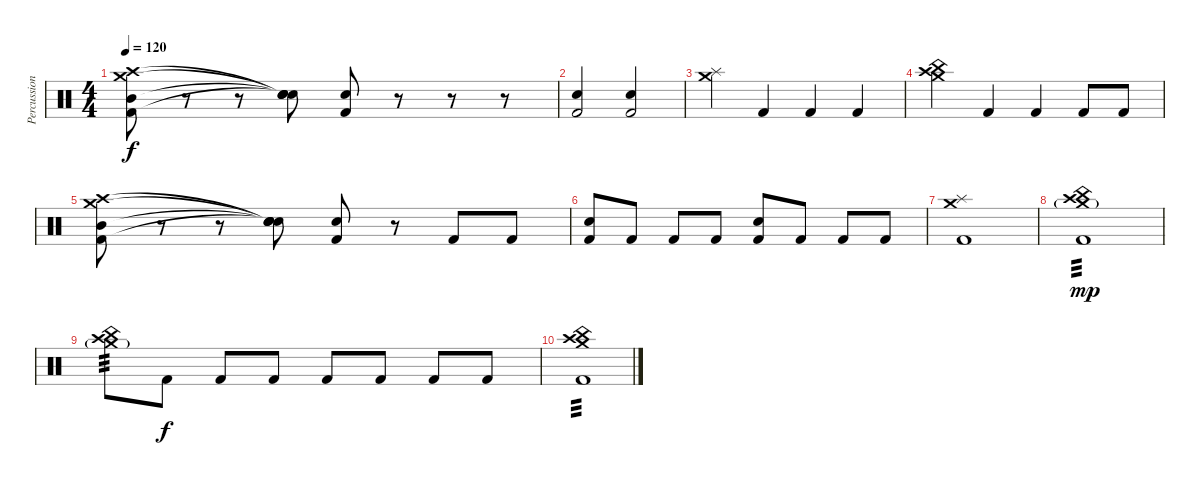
\track ("Percussion" "Percussion") {instrument percussion}
\staff {score}
\articulation defaults
\ts (4 4)
\tempo 120
\clef neutral
\ks c
("Mid Tom (hit)" "Crash medium (hit)" "Kick (hit) 2" "Crash high (hit)").8{dy f} r.8 r.8 ("Snare (hit)"{t} "Snare (hit)"{t} "Snare (hit)"{t} "Snare (hit)"{t}).8 ("Metronome (bell)" "Kick (hit) 2").8 r.8 r.8 r.8 |
("Metronome (bell)" "Kick (hit) 2").2 ("Metronome (bell)" "Kick (hit) 2").2 |
("Crash medium (hit)" "Splash (hit)").4 "Kick (hit) 2".4 "Kick (hit) 2".4 "Kick (hit) 2".4 |
("China (hit)" "Crash medium (hit)" "Crash high (hit)").4 "Kick (hit) 2".4 "Kick (hit) 2".4 "Kick (hit) 2".8 "Kick (hit) 2".8 |
("Mid Tom (hit)" "Crash medium (hit)" "Kick (hit) 2" "Crash high (hit)").8 r.8 r.8 ("Snare (hit)"{t} "Snare (hit)"{t} "Snare (hit)"{t} "Snare (hit)"{t}).8 ("Metronome (bell)" "Kick (hit) 2").8 r.8 "Kick (hit) 2".8 "Kick (hit) 2".8 |
("Metronome (bell)" "Kick (hit) 2").8 "Kick (hit) 2".8 "Kick (hit) 2".8 "Kick (hit) 2".8 ("Metronome (bell)" "Kick (hit) 2").8 "Kick (hit) 2".8 "Kick (hit) 2".8 "Kick (hit) 2".8 |
("Crash medium (hit)" "Splash (hit)" "Kick (hit) 2").1 |
("China (hit)" "Crash medium (hit)"{g} "Crash high (hit)" "Kick (hit) 2").1{tp 3 dy mp} |
("China (hit)" "Crash medium (hit)"{g} "Crash high (hit)").8{tp 3} "Kick (hit) 2".8{dy f} "Kick (hit) 2".8 "Kick (hit) 2".8 "Kick (hit) 2".8 "Kick (hit) 2".8 "Kick (hit) 2".8 "Kick (hit) 2".8 |
("China (hit)" "Crash medium (hit)" "Crash high (hit)" "Kick (hit) 2").1{tp 3}
